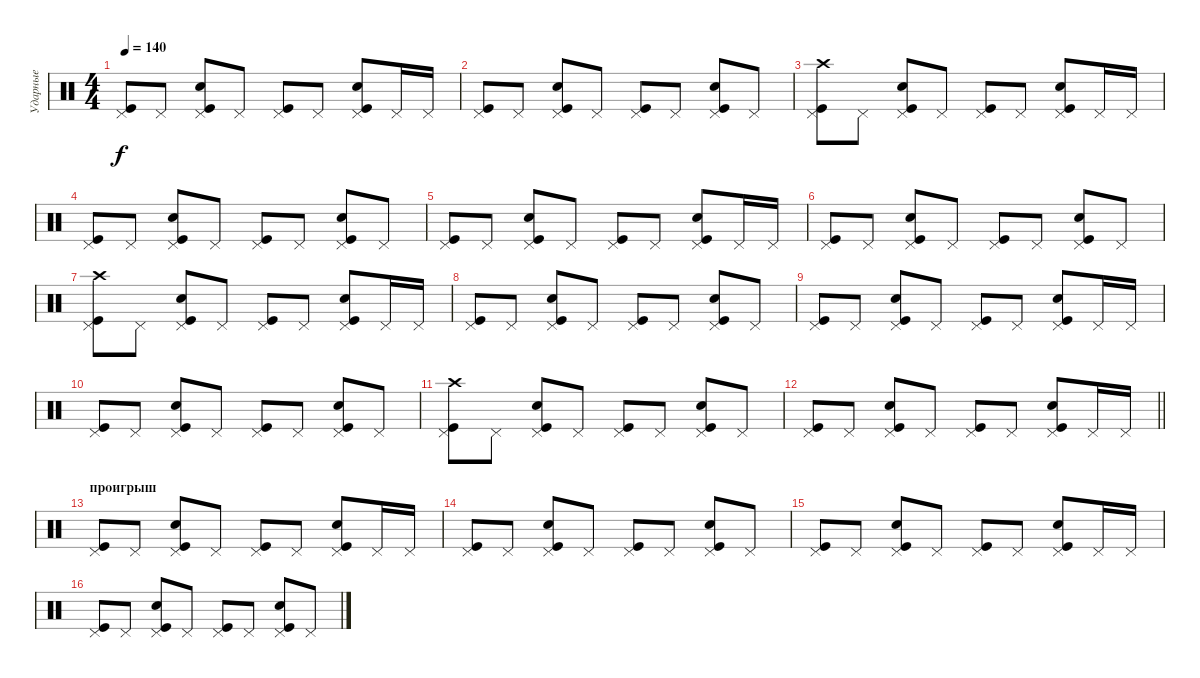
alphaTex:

\track ("Ударные" "Ударные") {instrument percussion}
\staff {score}
\articulation defaults
\ts (4 4)
\tempo 140
\clef neutral
\ks c
("Pedal Hi-Hat (hit)" "Kick (hit)").8{dy f} "Pedal Hi-Hat (hit)".8 ("Pedal Hi-Hat (hit)" "Kick (hit)" "Snare (hit) 2").8 "Pedal Hi-Hat (hit)".8 ("Pedal Hi-Hat (hit)" "Kick (hit)").8 "Pedal Hi-Hat (hit)".8 ("Pedal Hi-Hat (hit)" "Kick (hit)" "Snare (hit) 2").8 "Pedal Hi-Hat (hit)".16 "Pedal Hi-Hat (hit)".16 |
("Pedal Hi-Hat (hit)" "Kick (hit)").8 "Pedal Hi-Hat (hit)".8 ("Pedal Hi-Hat (hit)" "Kick (hit)" "Snare (hit) 2").8 "Pedal Hi-Hat (hit)".8 ("Pedal Hi-Hat (hit)" "Kick (hit)").8 "Pedal Hi-Hat (hit)".8 ("Pedal Hi-Hat (hit)" "Kick (hit)" "Snare (hit) 2").8 "Pedal Hi-Hat (hit)".8 |
("Pedal Hi-Hat (hit)" "Kick (hit)" "Crash high (hit)").8 "Pedal Hi-Hat (hit)".8 ("Pedal Hi-Hat (hit)" "Kick (hit)" "Snare (hit) 2").8 "Pedal Hi-Hat (hit)".8 ("Pedal Hi-Hat (hit)" "Kick (hit)").8 "Pedal Hi-Hat (hit)".8 ("Pedal Hi-Hat (hit)" "Kick (hit)" "Snare (hit) 2").8 "Pedal Hi-Hat (hit)".16 "Pedal Hi-Hat (hit)".16 |
("Pedal Hi-Hat (hit)" "Kick (hit)").8 "Pedal Hi-Hat (hit)".8 ("Pedal Hi-Hat (hit)" "Kick (hit)" "Snare (hit) 2").8 "Pedal Hi-Hat (hit)".8 ("Pedal Hi-Hat (hit)" "Kick (hit)").8 "Pedal Hi-Hat (hit)".8 ("Pedal Hi-Hat (hit)" "Kick (hit)" "Snare (hit) 2").8 "Pedal Hi-Hat (hit)".8 |
("Pedal Hi-Hat (hit)" "Kick (hit)").8 "Pedal Hi-Hat (hit)".8 ("Pedal Hi-Hat (hit)" "Kick (hit)" "Snare (hit) 2").8 "Pedal Hi-Hat (hit)".8 ("Pedal Hi-Hat (hit)" "Kick (hit)").8 "Pedal Hi-Hat (hit)".8 ("Pedal Hi-Hat (hit)" "Kick (hit)" "Snare (hit) 2").8 "Pedal Hi-Hat (hit)".16 "Pedal Hi-Hat (hit)".16 |
("Pedal Hi-Hat (hit)" "Kick (hit)").8 "Pedal Hi-Hat (hit)".8 ("Pedal Hi-Hat (hit)" "Kick (hit)" "Snare (hit) 2").8 "Pedal Hi-Hat (hit)".8 ("Pedal Hi-Hat (hit)" "Kick (hit)").8 "Pedal Hi-Hat (hit)".8 ("Pedal Hi-Hat (hit)" "Kick (hit)" "Snare (hit) 2").8 "Pedal Hi-Hat (hit)".8 |
("Pedal Hi-Hat (hit)" "Kick (hit)" "Crash high (hit)").8 "Pedal Hi-Hat (hit)".8 ("Pedal Hi-Hat (hit)" "Kick (hit)" "Snare (hit) 2").8 "Pedal Hi-Hat (hit)".8 ("Pedal Hi-Hat (hit)" "Kick (hit)").8 "Pedal Hi-Hat (hit)".8 ("Pedal Hi-Hat (hit)" "Kick (hit)" "Snare (hit) 2").8 "Pedal Hi-Hat (hit)".16 "Pedal Hi-Hat (hit)".16 |
("Pedal Hi-Hat (hit)" "Kick (hit)").8 "Pedal Hi-Hat (hit)".8 ("Pedal Hi-Hat (hit)" "Kick (hit)" "Snare (hit) 2").8 "Pedal Hi-Hat (hit)".8 ("Pedal Hi-Hat (hit)" "Kick (hit)").8 "Pedal Hi-Hat (hit)".8 ("Pedal Hi-Hat (hit)" "Kick (hit)" "Snare (hit) 2").8 "Pedal Hi-Hat (hit)".8 |
("Pedal Hi-Hat (hit)" "Kick (hit)").8 "Pedal Hi-Hat (hit)".8 ("Pedal Hi-Hat (hit)" "Kick (hit)" "Snare (hit) 2").8 "Pedal Hi-Hat (hit)".8 ("Pedal Hi-Hat (hit)" "Kick (hit)").8 "Pedal Hi-Hat (hit)".8 ("Pedal Hi-Hat (hit)" "Kick (hit)" "Snare (hit) 2").8 "Pedal Hi-Hat (hit)".16 "Pedal Hi-Hat (hit)".16 |
("Pedal Hi-Hat (hit)" "Kick (hit)").8 "Pedal Hi-Hat (hit)".8 ("Pedal Hi-Hat (hit)" "Kick (hit)" "Snare (hit) 2").8 "Pedal Hi-Hat (hit)".8 ("Pedal Hi-Hat (hit)" "Kick (hit)").8 "Pedal Hi-Hat (hit)".8 ("Pedal Hi-Hat (hit)" "Kick (hit)" "Snare (hit) 2").8 "Pedal Hi-Hat (hit)".8 |
("Pedal Hi-Hat (hit)" "Kick (hit)" "Crash high (hit)").8 "Pedal Hi-Hat (hit)".8 ("Pedal Hi-Hat (hit)" "Kick (hit)" "Snare (hit) 2").8 "Pedal Hi-Hat (hit)".8 ("Pedal Hi-Hat (hit)" "Kick (hit)").8 "Pedal Hi-Hat (hit)".8 ("Pedal Hi-Hat (hit)" "Kick (hit)" "Snare (hit) 2").8 "Pedal Hi-Hat (hit)".8 |
\barLineRight lightlight
("Pedal Hi-Hat (hit)" "Kick (hit)").8 "Pedal Hi-Hat (hit)".8 ("Pedal Hi-Hat (hit)" "Kick (hit)" "Snare (hit) 2").8 "Pedal Hi-Hat (hit)".8 ("Pedal Hi-Hat (hit)" "Kick (hit)").8 "Pedal Hi-Hat (hit)".8 ("Pedal Hi-Hat (hit)" "Kick (hit)" "Snare (hit) 2").8 "Pedal Hi-Hat (hit)".16 "Pedal Hi-Hat (hit)".16 |
\section ("" "проигрыш")
("Pedal Hi-Hat (hit)" "Kick (hit)").8 "Pedal Hi-Hat (hit)".8 ("Pedal Hi-Hat (hit)" "Kick (hit)" "Snare (hit) 2").8 "Pedal Hi-Hat (hit)".8 ("Pedal Hi-Hat (hit)" "Kick (hit)").8 "Pedal Hi-Hat (hit)".8 ("Pedal Hi-Hat (hit)" "Kick (hit)" "Snare (hit) 2").8 "Pedal Hi-Hat (hit)".16 "Pedal Hi-Hat (hit)".16 |
("Pedal Hi-Hat (hit)" "Kick (hit)").8 "Pedal Hi-Hat (hit)".8 ("Pedal Hi-Hat (hit)" "Kick (hit)" "Snare (hit) 2").8 "Pedal Hi-Hat (hit)".8 ("Pedal Hi-Hat (hit)" "Kick (hit)").8 "Pedal Hi-Hat (hit)".8 ("Pedal Hi-Hat (hit)" "Kick (hit)" "Snare (hit) 2").8 "Pedal Hi-Hat (hit)".8 |
("Pedal Hi-Hat (hit)" "Kick (hit)").8 "Pedal Hi-Hat (hit)".8 ("Pedal Hi-Hat (hit)" "Kick (hit)" "Snare (hit) 2").8 "Pedal Hi-Hat (hit)".8 ("Pedal Hi-Hat (hit)" "Kick (hit)").8 "Pedal Hi-Hat (hit)".8 ("Pedal Hi-Hat (hit)" "Kick (hit)" "Snare (hit) 2").8 "Pedal Hi-Hat (hit)".16 "Pedal Hi-Hat (hit)".16 |
("Pedal Hi-Hat (hit)" "Kick (hit)").8 "Pedal Hi-Hat (hit)".8 ("Pedal Hi-Hat (hit)" "Kick (hit)" "Snare (hit) 2").8 "Pedal Hi-Hat (hit)".8 ("Pedal Hi-Hat (hit)" "Kick (hit)").8 "Pedal Hi-Hat (hit)".8 ("Pedal Hi-Hat (hit)" "Kick (hit)" "Snare (hit) 2").8 "Pedal Hi-Hat (hit)".8
